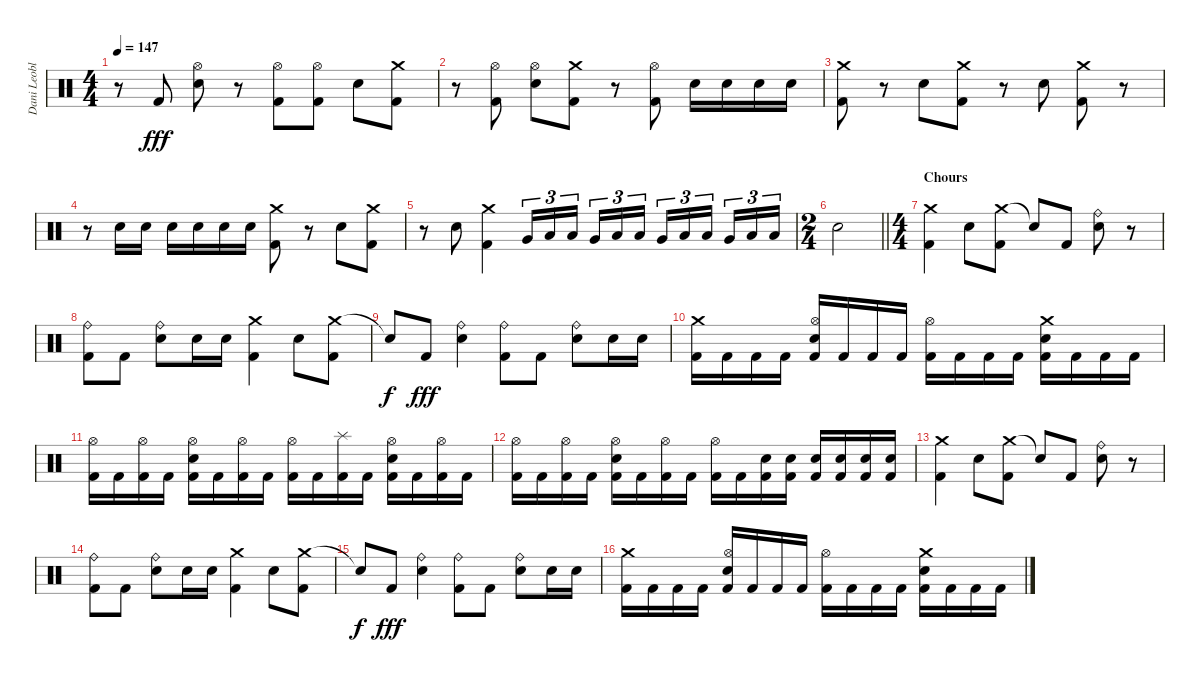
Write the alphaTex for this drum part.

\track ("Dani Leoble" "Dani Leobl") {instrument percussion}
\staff {score}
\articulation defaults
\ts (4 4)
\tempo 147
\clef neutral
\ks c
r.8{dy fff} "Kick (hit) 2".8 ("Hi-Hat (open)" "Electric Snare (hit)").8 r.8 ("Hi-Hat (open)" "Kick (hit) 2").8 ("Hi-Hat (open)" "Kick (hit) 2").8 "Electric Snare (hit)".8 ("Crash medium (hit)" "Kick (hit) 2").8 |
r.8 ("Hi-Hat (open)" "Kick (hit) 2").8 ("Hi-Hat (open)" "Electric Snare (hit)").8 ("Crash medium (hit)" "Kick (hit) 2").8 r.8 ("Hi-Hat (open)" "Kick (hit) 2").8 "Electric Snare (hit)".16 "Electric Snare (hit)".16 "Electric Snare (hit)".16 "Electric Snare (hit)".16 |
("Crash medium (hit)" "Kick (hit) 2").8 r.8 "Electric Snare (hit)".8 ("Crash medium (hit)" "Kick (hit) 2").8 r.8 "Electric Snare (hit)".8 ("Crash medium (hit)" "Kick (hit) 2").8 r.8 |
r.8 "Electric Snare (hit)".16 "Electric Snare (hit)".16 "Electric Snare (hit)".16 "Electric Snare (hit)".16 "Electric Snare (hit)".16 "Electric Snare (hit)".16 ("Crash medium (hit)" "Kick (hit) 2").8 r.8 "Electric Snare (hit)".8 ("Crash medium (hit)" "Kick (hit) 2").8 |
r.8 "Electric Snare (hit)".8 ("Crash medium (hit)" "Kick (hit) 2").4 "Very Low Tom (hit)".16{tu (3 2)} "Low Floor Tom (hit)".16{tu (3 2)} "Low Floor Tom (hit)".16{tu (3 2) beam splitsecondary} "Very Low Tom (hit)".16{tu (3 2)} "Low Floor Tom (hit)".16{tu (3 2)} "Low Floor Tom (hit)".16{tu (3 2)} "Very Low Tom (hit)".16{tu (3 2)} "Low Floor Tom (hit)".16{tu (3 2)} "Low Floor Tom (hit)".16{tu (3 2) beam splitsecondary} "Very Low Tom (hit)".16{tu (3 2)} "Low Floor Tom (hit)".16{tu (3 2)} "Low Floor Tom (hit)".16{tu (3 2)} |
\ts (2 4)
\barLineRight lightlight "Electric Snare (hit)".2
|
\ts (4 4)
\section ("" "Chours")
("Crash medium (hit)" "Kick (hit) 2").4 "Electric Snare (hit)".8 ("Crash medium (hit)" "Kick (hit) 2").8 "Snare (hit)"{t}.8 "Kick (hit) 2".8 ("Ride (bell)" "Electric Snare (hit)").8 r.8 |
("Ride (bell)" "Kick (hit) 2").8 "Kick (hit) 2".8 ("Ride (bell)" "Electric Snare (hit)").8 "Electric Snare (hit)".16 "Electric Snare (hit)".16 ("Crash medium (hit)" "Kick (hit) 2").4 "Electric Snare (hit)".8 ("Crash medium (hit)" "Kick (hit) 2").8 |
"Snare (hit)"{t}.8{dy f} "Kick (hit) 2".8{dy fff} ("Ride (bell)" "Electric Snare (hit)").4 ("Ride (bell)" "Kick (hit) 2").8 "Kick (hit) 2".8 ("Ride (bell)" "Electric Snare (hit)").8 "Electric Snare (hit)".16 "Electric Snare (hit)".16 |
("Crash medium (hit)" "Kick (hit) 2").16 "Kick (hit) 2".16 "Kick (hit) 2".16 "Kick (hit) 2".16 ("Hi-Hat (open)" "Electric Snare (hit)" "Kick (hit) 2").16 "Kick (hit) 2".16 "Kick (hit) 2".16 "Kick (hit) 2".16 ("Hi-Hat (open)" "Kick (hit) 2").16 "Kick (hit) 2".16 "Kick (hit) 2".16 "Kick (hit) 2".16 ("Crash medium (hit)" "Electric Snare (hit)" "Kick (hit) 2").16 "Kick (hit) 2".16 "Kick (hit) 2".16 "Kick (hit) 2".16 |
("Hi-Hat (open)" "Kick (hit) 2").16 "Kick (hit) 2".16 ("Hi-Hat (open)" "Kick (hit) 2").16 "Kick (hit) 2".16 ("Hi-Hat (open)" "Electric Snare (hit)" "Kick (hit) 2").16 "Kick (hit) 2".16 ("Hi-Hat (open)" "Kick (hit) 2").16 "Kick (hit) 2".16 ("Hi-Hat (open)" "Kick (hit) 2").16 "Kick (hit) 2".16 ("Splash (hit)" "Kick (hit) 2").16 "Kick (hit) 2".16 ("Hi-Hat (open)" "Electric Snare (hit)" "Kick (hit) 2").16 "Kick (hit) 2".16 ("Hi-Hat (open)" "Kick (hit) 2").16 "Kick (hit) 2".16 |
("Hi-Hat (open)" "Kick (hit) 2").16 "Kick (hit) 2".16 ("Hi-Hat (open)" "Kick (hit) 2").16 "Kick (hit) 2".16 ("Hi-Hat (open)" "Electric Snare (hit)" "Kick (hit) 2").16 "Kick (hit) 2".16 ("Hi-Hat (open)" "Kick (hit) 2").16 "Kick (hit) 2".16 ("Hi-Hat (open)" "Kick (hit) 2").16 "Kick (hit) 2".16 ("Electric Snare (hit)" "Kick (hit) 2").16 ("Electric Snare (hit)" "Kick (hit) 2").16 ("Electric Snare (hit)" "Kick (hit) 2").16 ("Electric Snare (hit)" "Kick (hit) 2").16 ("Electric Snare (hit)" "Kick (hit) 2").16 ("Electric Snare (hit)" "Kick (hit) 2").16 |
("Crash medium (hit)" "Kick (hit) 2").4 "Electric Snare (hit)".8 ("Crash medium (hit)" "Kick (hit) 2").8 "Snare (hit)"{t}.8 "Kick (hit) 2".8 ("Ride (bell)" "Electric Snare (hit)").8 r.8 |
("Ride (bell)" "Kick (hit) 2").8 "Kick (hit) 2".8 ("Ride (bell)" "Electric Snare (hit)").8 "Electric Snare (hit)".16 "Electric Snare (hit)".16 ("Crash medium (hit)" "Kick (hit) 2").4 "Electric Snare (hit)".8 ("Crash medium (hit)" "Kick (hit) 2").8 |
"Snare (hit)"{t}.8{dy f} "Kick (hit) 2".8{dy fff} ("Ride (bell)" "Electric Snare (hit)").4 ("Ride (bell)" "Kick (hit) 2").8 "Kick (hit) 2".8 ("Ride (bell)" "Electric Snare (hit)").8 "Electric Snare (hit)".16 "Electric Snare (hit)".16 |
("Crash medium (hit)" "Kick (hit) 2").16 "Kick (hit) 2".16 "Kick (hit) 2".16 "Kick (hit) 2".16 ("Hi-Hat (open)" "Electric Snare (hit)" "Kick (hit) 2").16 "Kick (hit) 2".16 "Kick (hit) 2".16 "Kick (hit) 2".16 ("Hi-Hat (open)" "Kick (hit) 2").16 "Kick (hit) 2".16 "Kick (hit) 2".16 "Kick (hit) 2".16 ("Crash medium (hit)" "Electric Snare (hit)" "Kick (hit) 2").16 "Kick (hit) 2".16 "Kick (hit) 2".16 "Kick (hit) 2".16
